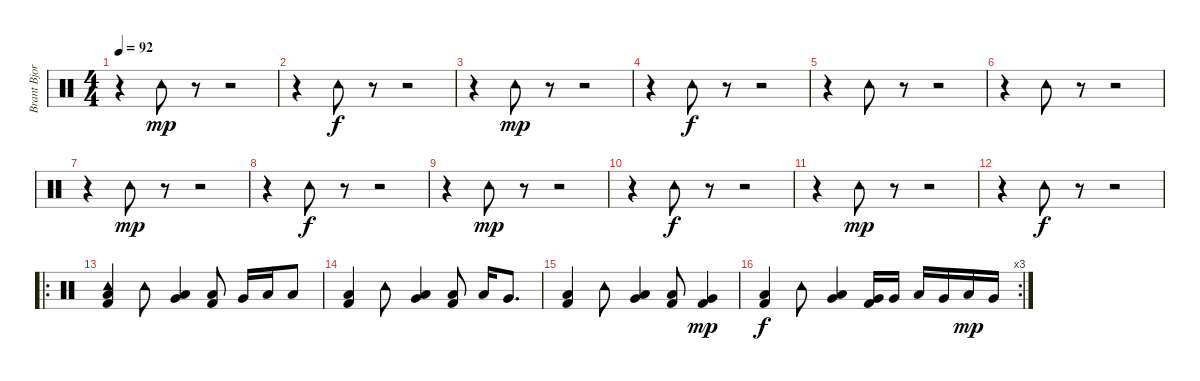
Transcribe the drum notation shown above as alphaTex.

\track ("Brant Bjork - Drums" "Brant Bjor") {instrument percussion}
\staff {score}
\articulation defaults
\ts (4 4)
\tempo 92
\clef neutral
\ks c
r.4{dy f} "Tambourine (hit)".8{dy mp} r.8 r.2 |
r.4 "Tambourine (hit)".8{dy f} r.8 r.2 |
r.4 "Tambourine (hit)".8{dy mp} r.8 r.2 |
r.4 "Tambourine (hit)".8{dy f} r.8 r.2 |
r.4 "Tambourine (hit)".8 r.8 r.2 |
r.4 "Tambourine (hit)".8 r.8 r.2 |
r.4 "Tambourine (hit)".8{dy mp} r.8 r.2 |
r.4 "Tambourine (hit)".8{dy f} r.8 r.2 |
r.4 "Tambourine (hit)".8{dy mp} r.8 r.2 |
r.4 "Tambourine (hit)".8{dy f} r.8 r.2 |
r.4 "Tambourine (hit)".8{dy mp} r.8 r.2 |
r.4 "Tambourine (hit)".8{dy f} r.8 r.2 |
\ro
("Tambourine (hit)" "Low Floor Tom (hit)" "Kick (hit) 2").4 "Tambourine (hit)".8 ("Low Floor Tom (hit)" "Very Low Tom (hit)").4 ("Low Floor Tom (hit)" "Kick (hit) 2").8 "Very Low Tom (hit)".16 "Low Floor Tom (hit)".16 "Low Floor Tom (hit)".8 |
("Low Floor Tom (hit)" "Kick (hit) 2").4 "Tambourine (hit)".8 ("Low Floor Tom (hit)" "Very Low Tom (hit)").4 ("Low Floor Tom (hit)" "Kick (hit) 2").8 "Low Floor Tom (hit)".16 "Very Low Tom (hit)".8{d} |
("Low Floor Tom (hit)" "Kick (hit) 2").4 "Tambourine (hit)".8 ("Low Floor Tom (hit)" "Very Low Tom (hit)").4 ("Low Floor Tom (hit)" "Kick (hit) 2").8 ("Very Low Tom (hit)" "Kick (hit) 2").4{dy mp} |
\rc 3
("Low Floor Tom (hit)" "Kick (hit) 2").4{dy f} "Tambourine (hit)".8 ("Low Floor Tom (hit)" "Very Low Tom (hit)").4 ("Very Low Tom (hit)" "Kick (hit) 2").16 "Very Low Tom (hit)".16 "Low Tom (hit)".16 "Very Low Tom (hit)".16 "Low Floor Tom (hit)".16{dy mp} "Very Low Tom (hit)".16
